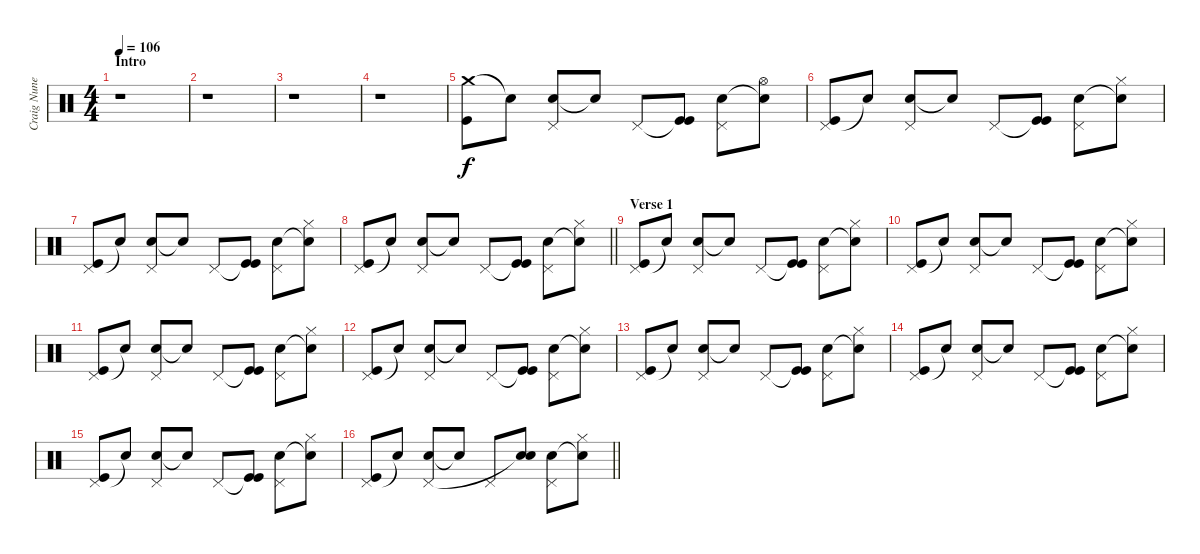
\track ("Craig Nunemacher" "Craig Nune") {instrument percussion}
\staff {score}
\articulation defaults
\ts (4 4)
\section ("" "Intro")
\tempo 106
\clef neutral
\ks c
r.1{dy f} |
r.1 |
r.1 |
r.1 |
("Crash medium (hit)" "Kick (hit)").8 "Snare (hit)"{t}.8 ("Snare (hit) 2" "Pedal Hi-Hat (hit)").8 "Snare (hit)"{t}.8 "Pedal Hi-Hat (hit)".8 ("Kick (hit)"{t} "Kick (hit)").8 ("Snare (hit) 2" "Pedal Hi-Hat (hit)").8 ("Snare (hit)"{t} "Hi-Hat (open)").8 |
("Pedal Hi-Hat (hit)" "Kick (hit)").8 "Snare (hit)"{t}.8 ("Snare (hit) 2" "Pedal Hi-Hat (hit)").8 "Snare (hit)"{t}.8 "Pedal Hi-Hat (hit)".8 ("Kick (hit)"{t} "Kick (hit)").8 ("Snare (hit) 2" "Pedal Hi-Hat (hit)").8 ("Snare (hit)"{t} "Hi-Hat (closed)").8 |
("Pedal Hi-Hat (hit)" "Kick (hit)").8 "Snare (hit)"{t}.8 ("Snare (hit) 2" "Pedal Hi-Hat (hit)").8 "Snare (hit)"{t}.8 "Pedal Hi-Hat (hit)".8 ("Kick (hit)"{t} "Kick (hit)").8 ("Snare (hit) 2" "Pedal Hi-Hat (hit)").8 ("Snare (hit)"{t} "Hi-Hat (closed)").8 |
\barLineRight lightlight
("Pedal Hi-Hat (hit)" "Kick (hit)").8 "Snare (hit)"{t}.8 ("Snare (hit) 2" "Pedal Hi-Hat (hit)").8 "Snare (hit)"{t}.8 "Pedal Hi-Hat (hit)".8 ("Kick (hit)"{t} "Kick (hit)").8 ("Snare (hit) 2" "Pedal Hi-Hat (hit)").8 ("Snare (hit)"{t} "Hi-Hat (closed)").8 |
\section ("" "Verse 1")
("Pedal Hi-Hat (hit)" "Kick (hit)").8 "Snare (hit)"{t}.8 ("Snare (hit) 2" "Pedal Hi-Hat (hit)").8 "Snare (hit)"{t}.8 "Pedal Hi-Hat (hit)".8 ("Kick (hit)"{t} "Kick (hit)").8 ("Snare (hit) 2" "Pedal Hi-Hat (hit)").8 ("Snare (hit)"{t} "Hi-Hat (closed)").8 |
("Pedal Hi-Hat (hit)" "Kick (hit)").8 "Snare (hit)"{t}.8 ("Snare (hit) 2" "Pedal Hi-Hat (hit)").8 "Snare (hit)"{t}.8 "Pedal Hi-Hat (hit)".8 ("Kick (hit)"{t} "Kick (hit)").8 ("Snare (hit) 2" "Pedal Hi-Hat (hit)").8 ("Snare (hit)"{t} "Hi-Hat (closed)").8 |
("Pedal Hi-Hat (hit)" "Kick (hit)").8 "Snare (hit)"{t}.8 ("Snare (hit) 2" "Pedal Hi-Hat (hit)").8 "Snare (hit)"{t}.8 "Pedal Hi-Hat (hit)".8 ("Kick (hit)"{t} "Kick (hit)").8 ("Snare (hit) 2" "Pedal Hi-Hat (hit)").8 ("Snare (hit)"{t} "Hi-Hat (closed)").8 |
("Pedal Hi-Hat (hit)" "Kick (hit)").8 "Snare (hit)"{t}.8 ("Snare (hit) 2" "Pedal Hi-Hat (hit)").8 "Snare (hit)"{t}.8 "Pedal Hi-Hat (hit)".8 ("Kick (hit)"{t} "Kick (hit)").8 ("Snare (hit) 2" "Pedal Hi-Hat (hit)").8 ("Snare (hit)"{t} "Hi-Hat (closed)").8 |
("Pedal Hi-Hat (hit)" "Kick (hit)").8 "Snare (hit)"{t}.8 ("Snare (hit) 2" "Pedal Hi-Hat (hit)").8 "Snare (hit)"{t}.8 "Pedal Hi-Hat (hit)".8 ("Kick (hit)"{t} "Kick (hit)").8 ("Snare (hit) 2" "Pedal Hi-Hat (hit)").8 ("Snare (hit)"{t} "Hi-Hat (closed)").8 |
("Pedal Hi-Hat (hit)" "Kick (hit)").8 "Snare (hit)"{t}.8 ("Snare (hit) 2" "Pedal Hi-Hat (hit)").8 "Snare (hit)"{t}.8 "Pedal Hi-Hat (hit)".8 ("Kick (hit)"{t} "Kick (hit)").8 ("Snare (hit) 2" "Pedal Hi-Hat (hit)").8 ("Snare (hit)"{t} "Hi-Hat (closed)").8 |
("Pedal Hi-Hat (hit)" "Kick (hit)").8 "Snare (hit)"{t}.8 ("Snare (hit) 2" "Pedal Hi-Hat (hit)").8 "Snare (hit)"{t}.8 "Pedal Hi-Hat (hit)".8 ("Kick (hit)"{t} "Kick (hit)").8 ("Snare (hit) 2" "Pedal Hi-Hat (hit)").8 ("Snare (hit)"{t} "Hi-Hat (closed)").8 |
\barLineRight lightlight
("Pedal Hi-Hat (hit)" "Kick (hit)").8 "Snare (hit)"{t}.8 ("Electric Snare (hit)" "Pedal Hi-Hat (hit)").8 "Snare (hit)"{t}.8 "Pedal Hi-Hat (hit)".8 ("Snare (hit) 2" "Snare (hit)"{t}).8 ("Snare (hit) 2" "Pedal Hi-Hat (hit)").8 ("Snare (hit)"{t} "Hi-Hat (closed)").8
